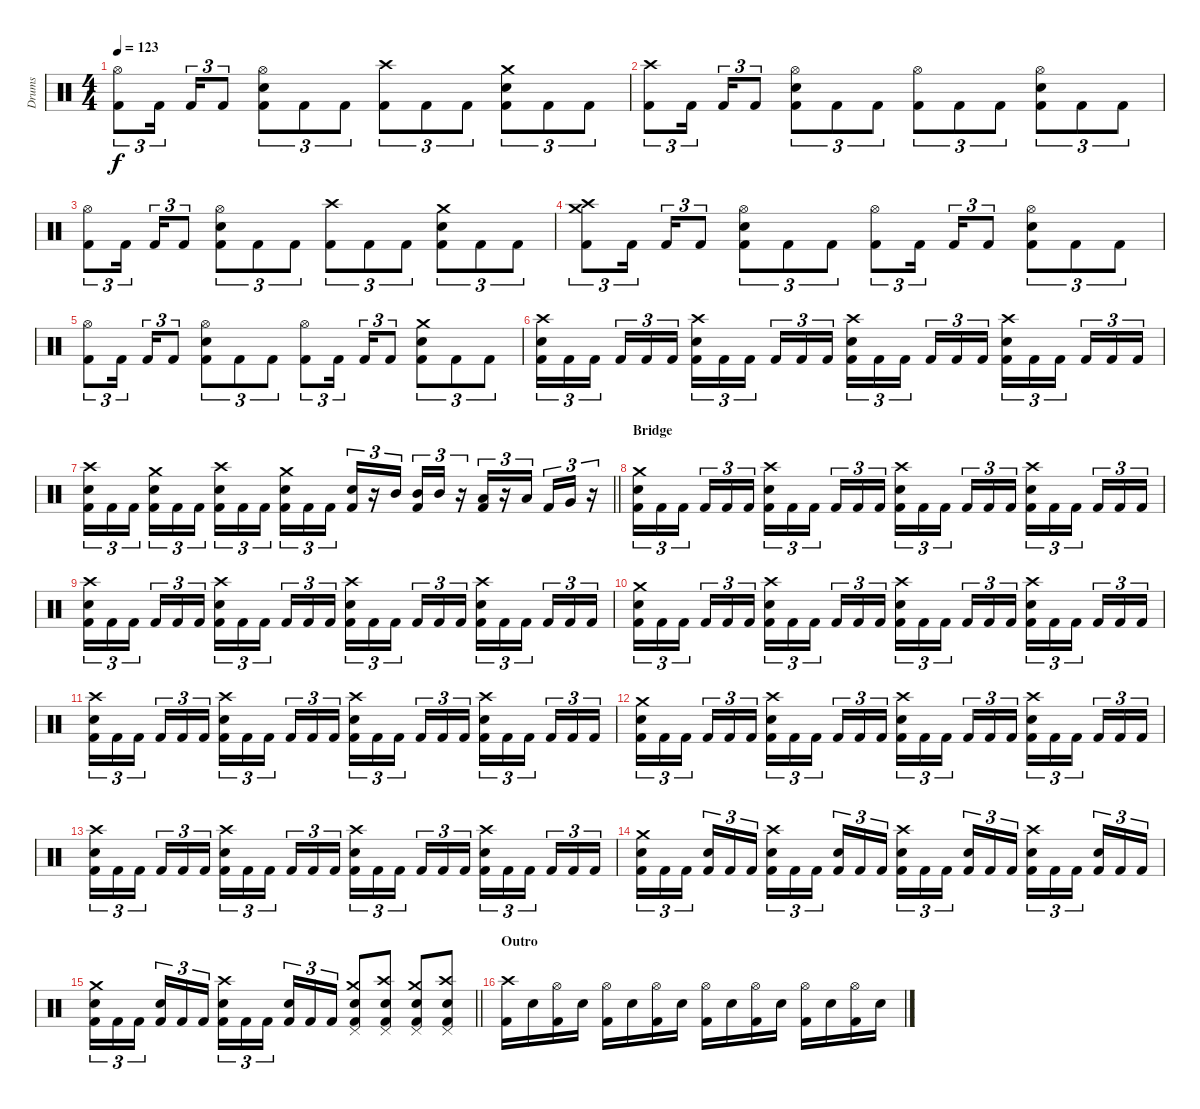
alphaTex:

\track ("Drums" "Drums") {instrument percussion}
\staff {score}
\articulation defaults
\ts (4 4)
\tempo 123
\clef neutral
\ks c
("Hi-Hat (open)" "Kick (hit) 2").8{tu (3 2) dy f} "Kick (hit) 2".16{tu (3 2) beam splitsecondary} "Kick (hit) 2".16{tu (3 2)} "Kick (hit) 2".8{tu (3 2)} ("Hi-Hat (open)" "Snare (hit) 2" "Kick (hit) 2").8{tu (3 2)} "Kick (hit) 2".8{tu (3 2)} "Kick (hit) 2".8{tu (3 2)} ("Crash high (hit)" "Kick (hit) 2").8{tu (3 2)} "Kick (hit) 2".8{tu (3 2)} "Kick (hit) 2".8{tu (3 2)} ("Crash medium (hit)" "Snare (hit) 2" "Kick (hit) 2").8{tu (3 2)} "Kick (hit) 2".8{tu (3 2)} "Kick (hit) 2".8{tu (3 2)} |
("Crash high (hit)" "Kick (hit) 2").8{tu (3 2)} "Kick (hit) 2".16{tu (3 2) beam splitsecondary} "Kick (hit) 2".16{tu (3 2)} "Kick (hit) 2".8{tu (3 2)} ("Hi-Hat (open)" "Snare (hit) 2" "Kick (hit) 2").8{tu (3 2)} "Kick (hit) 2".8{tu (3 2)} "Kick (hit) 2".8{tu (3 2)} ("Hi-Hat (open)" "Kick (hit) 2").8{tu (3 2)} "Kick (hit) 2".8{tu (3 2)} "Kick (hit) 2".8{tu (3 2)} ("Hi-Hat (open)" "Snare (hit) 2" "Kick (hit) 2").8{tu (3 2)} "Kick (hit) 2".8{tu (3 2)} "Kick (hit) 2".8{tu (3 2)} |
("Hi-Hat (open)" "Kick (hit) 2").8{tu (3 2)} "Kick (hit) 2".16{tu (3 2) beam splitsecondary} "Kick (hit) 2".16{tu (3 2)} "Kick (hit) 2".8{tu (3 2)} ("Hi-Hat (open)" "Snare (hit) 2" "Kick (hit) 2").8{tu (3 2)} "Kick (hit) 2".8{tu (3 2)} "Kick (hit) 2".8{tu (3 2)} ("Crash high (hit)" "Kick (hit) 2").8{tu (3 2)} "Kick (hit) 2".8{tu (3 2)} "Kick (hit) 2".8{tu (3 2)} ("Crash medium (hit)" "Snare (hit) 2" "Kick (hit) 2").8{tu (3 2)} "Kick (hit) 2".8{tu (3 2)} "Kick (hit) 2".8{tu (3 2)} |
("Crash high (hit)" "Crash medium (hit)" "Kick (hit) 2").8{tu (3 2)} "Kick (hit) 2".16{tu (3 2) beam splitsecondary} "Kick (hit) 2".16{tu (3 2)} "Kick (hit) 2".8{tu (3 2)} ("Hi-Hat (open)" "Snare (hit) 2" "Kick (hit) 2").8{tu (3 2)} "Kick (hit) 2".8{tu (3 2)} "Kick (hit) 2".8{tu (3 2)} ("Hi-Hat (open)" "Kick (hit) 2").8{tu (3 2)} "Kick (hit) 2".16{tu (3 2) beam splitsecondary} "Kick (hit) 2".16{tu (3 2)} "Kick (hit) 2".8{tu (3 2)} ("Hi-Hat (open)" "Snare (hit) 2" "Kick (hit) 2").8{tu (3 2)} "Kick (hit) 2".8{tu (3 2)} "Kick (hit) 2".8{tu (3 2)} |
("Hi-Hat (open)" "Kick (hit) 2").8{tu (3 2)} "Kick (hit) 2".16{tu (3 2) beam splitsecondary} "Kick (hit) 2".16{tu (3 2)} "Kick (hit) 2".8{tu (3 2)} ("Hi-Hat (open)" "Snare (hit) 2" "Kick (hit) 2").8{tu (3 2)} "Kick (hit) 2".8{tu (3 2)} "Kick (hit) 2".8{tu (3 2)} ("Hi-Hat (open)" "Kick (hit) 2").8{tu (3 2)} "Kick (hit) 2".16{tu (3 2) beam splitsecondary} "Kick (hit) 2".16{tu (3 2)} "Kick (hit) 2".8{tu (3 2)} ("Crash medium (hit)" "Snare (hit) 2" "Kick (hit) 2").8{tu (3 2)} "Kick (hit) 2".8{tu (3 2)} "Kick (hit) 2".8{tu (3 2)} |
("Crash high (hit)" "Snare (hit) 2" "Kick (hit) 2").16{tu (3 2)} "Kick (hit) 2".16{tu (3 2)} "Kick (hit) 2".16{tu (3 2) beam splitsecondary} "Kick (hit) 2".16{tu (3 2)} "Kick (hit) 2".16{tu (3 2)} "Kick (hit) 2".16{tu (3 2)} ("Crash high (hit)" "Snare (hit) 2" "Kick (hit) 2").16{tu (3 2)} "Kick (hit) 2".16{tu (3 2)} "Kick (hit) 2".16{tu (3 2) beam splitsecondary} "Kick (hit) 2".16{tu (3 2)} "Kick (hit) 2".16{tu (3 2)} "Kick (hit) 2".16{tu (3 2)} ("Crash high (hit)" "Snare (hit) 2" "Kick (hit) 2").16{tu (3 2)} "Kick (hit) 2".16{tu (3 2)} "Kick (hit) 2".16{tu (3 2) beam splitsecondary} "Kick (hit) 2".16{tu (3 2)} "Kick (hit) 2".16{tu (3 2)} "Kick (hit) 2".16{tu (3 2)} ("Crash high (hit)" "Snare (hit) 2" "Kick (hit) 2").16{tu (3 2)} "Kick (hit) 2".16{tu (3 2)} "Kick (hit) 2".16{tu (3 2) beam splitsecondary} "Kick (hit) 2".16{tu (3 2)} "Kick (hit) 2".16{tu (3 2)} "Kick (hit) 2".16{tu (3 2)} |
\barLineRight lightlight
("Crash high (hit)" "Snare (hit) 2" "Kick (hit) 2").16{tu (3 2)} "Kick (hit) 2".16{tu (3 2)} "Kick (hit) 2".16{tu (3 2) beam splitsecondary} ("Crash medium (hit)" "Snare (hit) 2" "Kick (hit) 2").16{tu (3 2)} "Kick (hit) 2".16{tu (3 2)} "Kick (hit) 2".16{tu (3 2)} ("Crash high (hit)" "Snare (hit) 2" "Kick (hit) 2").16{tu (3 2)} "Kick (hit) 2".16{tu (3 2)} "Kick (hit) 2".16{tu (3 2) beam splitsecondary} ("Crash medium (hit)" "Snare (hit) 2" "Kick (hit) 2").16{tu (3 2)} "Kick (hit) 2".16{tu (3 2)} "Kick (hit) 2".16{tu (3 2)} ("Snare (hit) 2" "Kick (hit) 2").16{tu (3 2)} r.16{tu (3 2)} "Mid Tom (hit)".16{tu (3 2) beam splitsecondary} ("Mid Tom (hit)" "Kick (hit) 2").16{tu (3 2)} "Mid Tom (hit)".16{tu (3 2)} r.16{tu (3 2)} ("Low Tom (hit)" "Kick (hit) 2").16{tu (3 2)} r.16{tu (3 2)} "Low Tom (hit)".16{tu (3 2) beam splitsecondary} "Kick (hit) 2".16{tu (3 2)} "Very Low Tom (hit)".16{tu (3 2)} r.16{tu (3 2)} |
\section ("" "Bridge")
("Crash medium (hit)" "Snare (hit) 2" "Kick (hit) 2").16{tu (3 2)} "Kick (hit) 2".16{tu (3 2)} "Kick (hit) 2".16{tu (3 2) beam splitsecondary} "Kick (hit) 2".16{tu (3 2)} "Kick (hit) 2".16{tu (3 2)} "Kick (hit) 2".16{tu (3 2)} ("Crash high (hit)" "Snare (hit) 2" "Kick (hit) 2").16{tu (3 2)} "Kick (hit) 2".16{tu (3 2)} "Kick (hit) 2".16{tu (3 2) beam splitsecondary} "Kick (hit) 2".16{tu (3 2)} "Kick (hit) 2".16{tu (3 2)} "Kick (hit) 2".16{tu (3 2)} ("Crash high (hit)" "Snare (hit) 2" "Kick (hit) 2").16{tu (3 2)} "Kick (hit) 2".16{tu (3 2)} "Kick (hit) 2".16{tu (3 2) beam splitsecondary} "Kick (hit) 2".16{tu (3 2)} "Kick (hit) 2".16{tu (3 2)} "Kick (hit) 2".16{tu (3 2)} ("Crash high (hit)" "Snare (hit) 2" "Kick (hit) 2").16{tu (3 2)} "Kick (hit) 2".16{tu (3 2)} "Kick (hit) 2".16{tu (3 2) beam splitsecondary} "Kick (hit) 2".16{tu (3 2)} "Kick (hit) 2".16{tu (3 2)} "Kick (hit) 2".16{tu (3 2)} |
("Crash high (hit)" "Snare (hit) 2" "Kick (hit) 2").16{tu (3 2)} "Kick (hit) 2".16{tu (3 2)} "Kick (hit) 2".16{tu (3 2) beam splitsecondary} "Kick (hit) 2".16{tu (3 2)} "Kick (hit) 2".16{tu (3 2)} "Kick (hit) 2".16{tu (3 2)} ("Crash high (hit)" "Snare (hit) 2" "Kick (hit) 2").16{tu (3 2)} "Kick (hit) 2".16{tu (3 2)} "Kick (hit) 2".16{tu (3 2) beam splitsecondary} "Kick (hit) 2".16{tu (3 2)} "Kick (hit) 2".16{tu (3 2)} "Kick (hit) 2".16{tu (3 2)} ("Crash high (hit)" "Snare (hit) 2" "Kick (hit) 2").16{tu (3 2)} "Kick (hit) 2".16{tu (3 2)} "Kick (hit) 2".16{tu (3 2) beam splitsecondary} "Kick (hit) 2".16{tu (3 2)} "Kick (hit) 2".16{tu (3 2)} "Kick (hit) 2".16{tu (3 2)} ("Crash high (hit)" "Snare (hit) 2" "Kick (hit) 2").16{tu (3 2)} "Kick (hit) 2".16{tu (3 2)} "Kick (hit) 2".16{tu (3 2) beam splitsecondary} "Kick (hit) 2".16{tu (3 2)} "Kick (hit) 2".16{tu (3 2)} "Kick (hit) 2".16{tu (3 2)} |
("Crash medium (hit)" "Snare (hit) 2" "Kick (hit) 2").16{tu (3 2)} "Kick (hit) 2".16{tu (3 2)} "Kick (hit) 2".16{tu (3 2) beam splitsecondary} "Kick (hit) 2".16{tu (3 2)} "Kick (hit) 2".16{tu (3 2)} "Kick (hit) 2".16{tu (3 2)} ("Crash high (hit)" "Snare (hit) 2" "Kick (hit) 2").16{tu (3 2)} "Kick (hit) 2".16{tu (3 2)} "Kick (hit) 2".16{tu (3 2) beam splitsecondary} "Kick (hit) 2".16{tu (3 2)} "Kick (hit) 2".16{tu (3 2)} "Kick (hit) 2".16{tu (3 2)} ("Crash high (hit)" "Snare (hit) 2" "Kick (hit) 2").16{tu (3 2)} "Kick (hit) 2".16{tu (3 2)} "Kick (hit) 2".16{tu (3 2) beam splitsecondary} "Kick (hit) 2".16{tu (3 2)} "Kick (hit) 2".16{tu (3 2)} "Kick (hit) 2".16{tu (3 2)} ("Crash high (hit)" "Snare (hit) 2" "Kick (hit) 2").16{tu (3 2)} "Kick (hit) 2".16{tu (3 2)} "Kick (hit) 2".16{tu (3 2) beam splitsecondary} "Kick (hit) 2".16{tu (3 2)} "Kick (hit) 2".16{tu (3 2)} "Kick (hit) 2".16{tu (3 2)} |
("Crash high (hit)" "Snare (hit) 2" "Kick (hit) 2").16{tu (3 2)} "Kick (hit) 2".16{tu (3 2)} "Kick (hit) 2".16{tu (3 2) beam splitsecondary} "Kick (hit) 2".16{tu (3 2)} "Kick (hit) 2".16{tu (3 2)} "Kick (hit) 2".16{tu (3 2)} ("Crash high (hit)" "Snare (hit) 2" "Kick (hit) 2").16{tu (3 2)} "Kick (hit) 2".16{tu (3 2)} "Kick (hit) 2".16{tu (3 2) beam splitsecondary} "Kick (hit) 2".16{tu (3 2)} "Kick (hit) 2".16{tu (3 2)} "Kick (hit) 2".16{tu (3 2)} ("Crash high (hit)" "Snare (hit) 2" "Kick (hit) 2").16{tu (3 2)} "Kick (hit) 2".16{tu (3 2)} "Kick (hit) 2".16{tu (3 2) beam splitsecondary} "Kick (hit) 2".16{tu (3 2)} "Kick (hit) 2".16{tu (3 2)} "Kick (hit) 2".16{tu (3 2)} ("Crash high (hit)" "Snare (hit) 2" "Kick (hit) 2").16{tu (3 2)} "Kick (hit) 2".16{tu (3 2)} "Kick (hit) 2".16{tu (3 2) beam splitsecondary} "Kick (hit) 2".16{tu (3 2)} "Kick (hit) 2".16{tu (3 2)} "Kick (hit) 2".16{tu (3 2)} |
("Crash medium (hit)" "Snare (hit) 2" "Kick (hit) 2").16{tu (3 2)} "Kick (hit) 2".16{tu (3 2)} "Kick (hit) 2".16{tu (3 2) beam splitsecondary} "Kick (hit) 2".16{tu (3 2)} "Kick (hit) 2".16{tu (3 2)} "Kick (hit) 2".16{tu (3 2)} ("Crash high (hit)" "Snare (hit) 2" "Kick (hit) 2").16{tu (3 2)} "Kick (hit) 2".16{tu (3 2)} "Kick (hit) 2".16{tu (3 2) beam splitsecondary} "Kick (hit) 2".16{tu (3 2)} "Kick (hit) 2".16{tu (3 2)} "Kick (hit) 2".16{tu (3 2)} ("Crash high (hit)" "Snare (hit) 2" "Kick (hit) 2").16{tu (3 2)} "Kick (hit) 2".16{tu (3 2)} "Kick (hit) 2".16{tu (3 2) beam splitsecondary} "Kick (hit) 2".16{tu (3 2)} "Kick (hit) 2".16{tu (3 2)} "Kick (hit) 2".16{tu (3 2)} ("Crash high (hit)" "Snare (hit) 2" "Kick (hit) 2").16{tu (3 2)} "Kick (hit) 2".16{tu (3 2)} "Kick (hit) 2".16{tu (3 2) beam splitsecondary} "Kick (hit) 2".16{tu (3 2)} "Kick (hit) 2".16{tu (3 2)} "Kick (hit) 2".16{tu (3 2)} |
("Crash high (hit)" "Snare (hit) 2" "Kick (hit) 2").16{tu (3 2)} "Kick (hit) 2".16{tu (3 2)} "Kick (hit) 2".16{tu (3 2) beam splitsecondary} "Kick (hit) 2".16{tu (3 2)} "Kick (hit) 2".16{tu (3 2)} "Kick (hit) 2".16{tu (3 2)} ("Crash high (hit)" "Snare (hit) 2" "Kick (hit) 2").16{tu (3 2)} "Kick (hit) 2".16{tu (3 2)} "Kick (hit) 2".16{tu (3 2) beam splitsecondary} "Kick (hit) 2".16{tu (3 2)} "Kick (hit) 2".16{tu (3 2)} "Kick (hit) 2".16{tu (3 2)} ("Crash high (hit)" "Snare (hit) 2" "Kick (hit) 2").16{tu (3 2)} "Kick (hit) 2".16{tu (3 2)} "Kick (hit) 2".16{tu (3 2) beam splitsecondary} "Kick (hit) 2".16{tu (3 2)} "Kick (hit) 2".16{tu (3 2)} "Kick (hit) 2".16{tu (3 2)} ("Crash high (hit)" "Snare (hit) 2" "Kick (hit) 2").16{tu (3 2)} "Kick (hit) 2".16{tu (3 2)} "Kick (hit) 2".16{tu (3 2) beam splitsecondary} "Kick (hit) 2".16{tu (3 2)} "Kick (hit) 2".16{tu (3 2)} "Kick (hit) 2".16{tu (3 2)} |
("Crash medium (hit)" "Snare (hit) 2" "Kick (hit) 2").16{tu (3 2)} "Kick (hit) 2".16{tu (3 2)} "Kick (hit) 2".16{tu (3 2) beam splitsecondary} ("Snare (hit) 2" "Kick (hit) 2").16{tu (3 2)} "Kick (hit) 2".16{tu (3 2)} "Kick (hit) 2".16{tu (3 2)} ("Crash high (hit)" "Snare (hit) 2" "Kick (hit) 2").16{tu (3 2)} "Kick (hit) 2".16{tu (3 2)} "Kick (hit) 2".16{tu (3 2) beam splitsecondary} ("Snare (hit) 2" "Kick (hit) 2").16{tu (3 2)} "Kick (hit) 2".16{tu (3 2)} "Kick (hit) 2".16{tu (3 2)} ("Crash high (hit)" "Snare (hit) 2" "Kick (hit) 2").16{tu (3 2)} "Kick (hit) 2".16{tu (3 2)} "Kick (hit) 2".16{tu (3 2) beam splitsecondary} ("Snare (hit) 2" "Kick (hit) 2").16{tu (3 2)} "Kick (hit) 2".16{tu (3 2)} "Kick (hit) 2".16{tu (3 2)} ("Crash high (hit)" "Snare (hit) 2" "Kick (hit) 2").16{tu (3 2)} "Kick (hit) 2".16{tu (3 2)} "Kick (hit) 2".16{tu (3 2) beam splitsecondary} ("Snare (hit) 2" "Kick (hit) 2").16{tu (3 2)} "Kick (hit) 2".16{tu (3 2)} "Kick (hit) 2".16{tu (3 2)} |
\barLineRight lightlight
("Crash medium (hit)" "Snare (hit) 2" "Kick (hit) 2").16{tu (3 2)} "Kick (hit) 2".16{tu (3 2)} "Kick (hit) 2".16{tu (3 2) beam splitsecondary} ("Snare (hit) 2" "Kick (hit) 2").16{tu (3 2)} "Kick (hit) 2".16{tu (3 2)} "Kick (hit) 2".16{tu (3 2)} ("Crash high (hit)" "Snare (hit) 2" "Kick (hit) 2").16{tu (3 2)} "Kick (hit) 2".16{tu (3 2)} "Kick (hit) 2".16{tu (3 2) beam splitsecondary} ("Snare (hit) 2" "Kick (hit) 2").16{tu (3 2)} "Kick (hit) 2".16{tu (3 2)} "Kick (hit) 2".16{tu (3 2)} ("Crash medium (hit)" "Pedal Hi-Hat (hit)" "Snare (hit) 2" "Kick (hit) 2").8 ("Crash high (hit)" "Pedal Hi-Hat (hit)" "Snare (hit) 2" "Kick (hit) 2").8 ("Crash medium (hit)" "Pedal Hi-Hat (hit)" "Snare (hit) 2" "Kick (hit) 2").8 ("Crash high (hit)" "Pedal Hi-Hat (hit)" "Snare (hit) 2" "Kick (hit) 2").8 |
\section ("" "Outro")
("Crash high (hit)" "Kick (hit) 2").16 "Snare (hit) 2".16 ("Hi-Hat (open)" "Kick (hit) 2").16 "Snare (hit) 2".16 ("Hi-Hat (open)" "Kick (hit) 2").16 "Snare (hit) 2".16 ("Hi-Hat (open)" "Kick (hit) 2").16 "Snare (hit) 2".16 ("Hi-Hat (open)" "Kick (hit) 2").16 "Snare (hit) 2".16 ("Hi-Hat (open)" "Kick (hit) 2").16 "Snare (hit) 2".16 ("Hi-Hat (open)" "Kick (hit) 2").16 "Snare (hit) 2".16 ("Hi-Hat (open)" "Kick (hit) 2").16 "Snare (hit) 2".16
